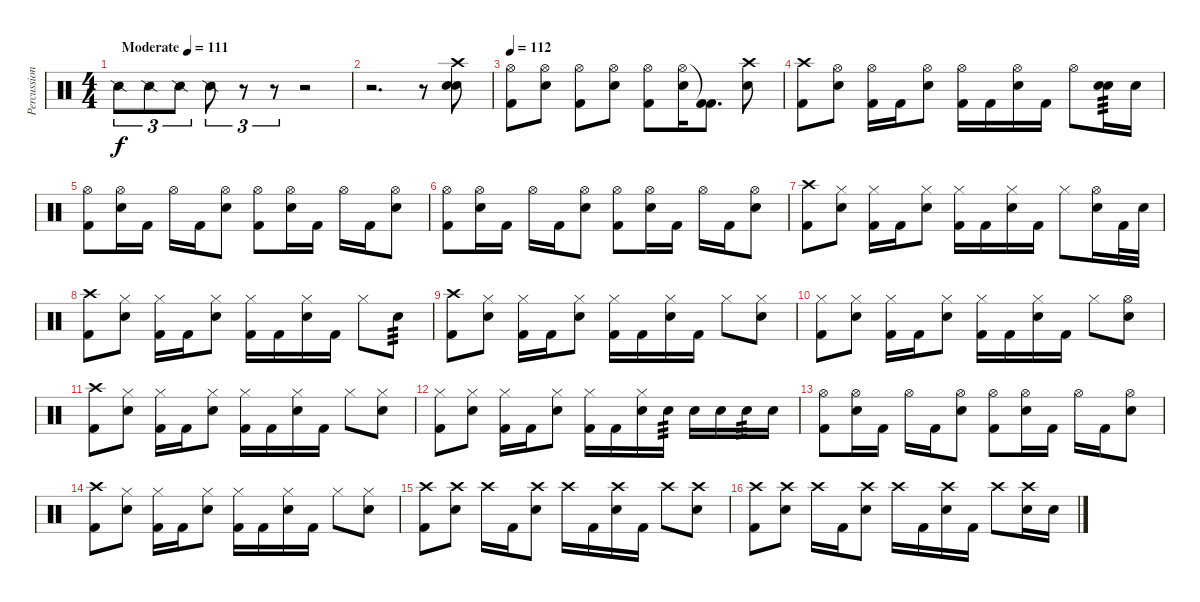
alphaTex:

\track ("Percussion" "Percussion") {instrument percussion}
\staff {score}
\articulation defaults
\ts (4 4)
\tempo (111 "Moderate")
\tempo 80
\tempo (111 "Moderate")
\clef neutral
\ks c "Snare (side stick) 2".8{tu (3 2) dy f} "Snare (side stick) 2".8{tu (3 2)} "Snare (side stick) 2".8{tu (3 2)} "Snare (side stick) 2".8{tu (3 2)}
r.8{tu (3 2)} r.8{tu (3 2)} r.2 |
r.2{d} r.8 ("Snare (hit) 2" "Electric Snare (hit)" "Crash high (hit)").8 |
\tempo 112
("Hi-Hat (open)" "Kick (hit) 2").8 ("Hi-Hat (open)" "Electric Snare (hit)").8 ("Hi-Hat (open)" "Kick (hit) 2").8 ("Hi-Hat (open)" "Electric Snare (hit)").8 ("Hi-Hat (open)" "Kick (hit) 2").8 ("Hi-Hat (open)" "Electric Snare (hit)").16 ("Kick (hit) 2"{t} "Kick (hit) 2").8{d} ("Crash high (hit)" "Electric Snare (hit)").8 |
("Crash high (hit)" "Kick (hit) 2").8 ("Hi-Hat (open)" "Electric Snare (hit)").8 ("Hi-Hat (open)" "Kick (hit) 2").16 "Kick (hit) 2".16 ("Hi-Hat (open)" "Electric Snare (hit)").8 ("Hi-Hat (open)" "Kick (hit) 2").16 "Kick (hit) 2".16 ("Hi-Hat (open)" "Electric Snare (hit)").16 "Kick (hit) 2".16 "Hi-Hat (open)".8 ("Electric Snare (hit)" "Electric Snare (hit)").16{tp 3} "Electric Snare (hit)".16 |
("Hi-Hat (open)" "Kick (hit) 2").8 ("Hi-Hat (open)" "Electric Snare (hit)").16 "Kick (hit) 2".16 "Hi-Hat (open)".16 "Kick (hit) 2".16 ("Electric Snare (hit)" "Hi-Hat (open)").8 ("Hi-Hat (open)" "Kick (hit) 2").8 ("Hi-Hat (open)" "Electric Snare (hit)").16 "Kick (hit) 2".16 "Hi-Hat (open)".16 "Kick (hit) 2".16 ("Electric Snare (hit)" "Hi-Hat (open)").8 |
("Hi-Hat (open)" "Kick (hit) 2").8 ("Hi-Hat (open)" "Electric Snare (hit)").16 "Kick (hit) 2".16 "Hi-Hat (open)".16 "Kick (hit) 2".16 ("Electric Snare (hit)" "Hi-Hat (open)").8 ("Hi-Hat (open)" "Kick (hit) 2").8 ("Hi-Hat (open)" "Electric Snare (hit)").16 "Kick (hit) 2".16 "Hi-Hat (open)".16 "Kick (hit) 2".16 ("Electric Snare (hit)" "Hi-Hat (open)").8 |
("Crash high (hit)" "Kick (hit) 2").8 ("Hi-Hat (closed)" "Electric Snare (hit)").8 ("Hi-Hat (closed)" "Kick (hit) 2").16 "Kick (hit) 2".16 ("Hi-Hat (closed)" "Electric Snare (hit)").8 ("Hi-Hat (closed)" "Kick (hit) 2").16 "Kick (hit) 2".16 ("Hi-Hat (closed)" "Electric Snare (hit)").16 "Kick (hit) 2".16 "Hi-Hat (closed)".8 ("Hi-Hat (open)" "Electric Snare (hit)").16 "Kick (hit) 2".32 "Electric Snare (hit)".32 |
("Crash high (hit)" "Kick (hit) 2").8 ("Hi-Hat (closed)" "Electric Snare (hit)").8 ("Hi-Hat (closed)" "Kick (hit) 2").16 "Kick (hit) 2".16 ("Hi-Hat (closed)" "Electric Snare (hit)").8 ("Hi-Hat (closed)" "Kick (hit) 2").16 "Kick (hit) 2".16 ("Hi-Hat (closed)" "Electric Snare (hit)").16 "Kick (hit) 2".16 "Hi-Hat (closed)".8 "Electric Snare (hit)".8{tp 3} |
("Crash high (hit)" "Kick (hit) 2").8 ("Hi-Hat (closed)" "Electric Snare (hit)").8 ("Hi-Hat (closed)" "Kick (hit) 2").16 "Kick (hit) 2".16 ("Hi-Hat (closed)" "Electric Snare (hit)").8 ("Hi-Hat (closed)" "Kick (hit) 2").16 "Kick (hit) 2".16 ("Hi-Hat (closed)" "Electric Snare (hit)").16 "Kick (hit) 2".16 "Hi-Hat (closed)".8 ("Hi-Hat (closed)" "Electric Snare (hit)").8 |
("Hi-Hat (closed)" "Kick (hit) 2").8 ("Hi-Hat (closed)" "Electric Snare (hit)").8 ("Hi-Hat (closed)" "Kick (hit) 2").16 "Kick (hit) 2".16 ("Hi-Hat (closed)" "Electric Snare (hit)").8 ("Hi-Hat (closed)" "Kick (hit) 2").16 "Kick (hit) 2".16 ("Hi-Hat (closed)" "Electric Snare (hit)").16 "Kick (hit) 2".16 "Hi-Hat (closed)".8 ("Hi-Hat (open)" "Electric Snare (hit)").8 |
("Crash high (hit)" "Kick (hit) 2").8 ("Hi-Hat (closed)" "Electric Snare (hit)").8 ("Hi-Hat (closed)" "Kick (hit) 2").16 "Kick (hit) 2".16 ("Hi-Hat (closed)" "Electric Snare (hit)").8 ("Hi-Hat (closed)" "Kick (hit) 2").16 "Kick (hit) 2".16 ("Hi-Hat (closed)" "Electric Snare (hit)").16 "Kick (hit) 2".16 "Hi-Hat (closed)".8 ("Hi-Hat (closed)" "Electric Snare (hit)").8 |
("Hi-Hat (closed)" "Kick (hit) 2").8 ("Hi-Hat (closed)" "Electric Snare (hit)").8 ("Hi-Hat (closed)" "Kick (hit) 2").16 "Kick (hit) 2".16 ("Hi-Hat (closed)" "Electric Snare (hit)").8 ("Hi-Hat (closed)" "Kick (hit) 2").16 "Kick (hit) 2".16 ("Hi-Hat (closed)" "Electric Snare (hit)").16 "Electric Snare (hit)".16{tp 3} "Electric Snare (hit)".16 "Electric Snare (hit)".16 "Electric Snare (hit)".16{tp 3} "Electric Snare (hit)".16 |
("Hi-Hat (open)" "Kick (hit) 2").8 ("Hi-Hat (open)" "Electric Snare (hit)").16 "Kick (hit) 2".16 "Hi-Hat (open)".16 "Kick (hit) 2".16 ("Electric Snare (hit)" "Hi-Hat (open)").8 ("Hi-Hat (open)" "Kick (hit) 2").8 ("Hi-Hat (open)" "Electric Snare (hit)").16 "Kick (hit) 2".16 "Hi-Hat (open)".16 "Kick (hit) 2".16 ("Electric Snare (hit)" "Hi-Hat (open)").8 |
("Crash high (hit)" "Kick (hit) 2").8 ("Hi-Hat (closed)" "Electric Snare (hit)").8 ("Hi-Hat (closed)" "Kick (hit) 2").16 "Kick (hit) 2".16 ("Hi-Hat (closed)" "Electric Snare (hit)").8 ("Hi-Hat (closed)" "Kick (hit) 2").16 "Kick (hit) 2".16 ("Hi-Hat (closed)" "Electric Snare (hit)").16 "Kick (hit) 2".16 "Hi-Hat (closed)".8 ("Hi-Hat (closed)" "Electric Snare (hit)").8 |
("Crash high (hit)" "Kick (hit) 2").8 ("Crash high (hit)" "Electric Snare (hit)").8 "Crash high (hit)".16 "Kick (hit) 2".16 ("Crash high (hit)" "Electric Snare (hit)").8 "Crash high (hit)".16 "Kick (hit) 2".16 ("Crash high (hit)" "Electric Snare (hit)").16 "Kick (hit) 2".16 "Crash high (hit)".8 ("Crash high (hit)" "Electric Snare (hit)").8 |
("Crash high (hit)" "Kick (hit) 2").8 ("Crash high (hit)" "Electric Snare (hit)").8 "Crash high (hit)".16 "Kick (hit) 2".16 ("Crash high (hit)" "Electric Snare (hit)").8 "Crash high (hit)".16 "Kick (hit) 2".16 ("Crash high (hit)" "Electric Snare (hit)").16 "Kick (hit) 2".16 "Crash high (hit)".8 ("Crash high (hit)" "Electric Snare (hit)").16 "Electric Snare (hit)".16
